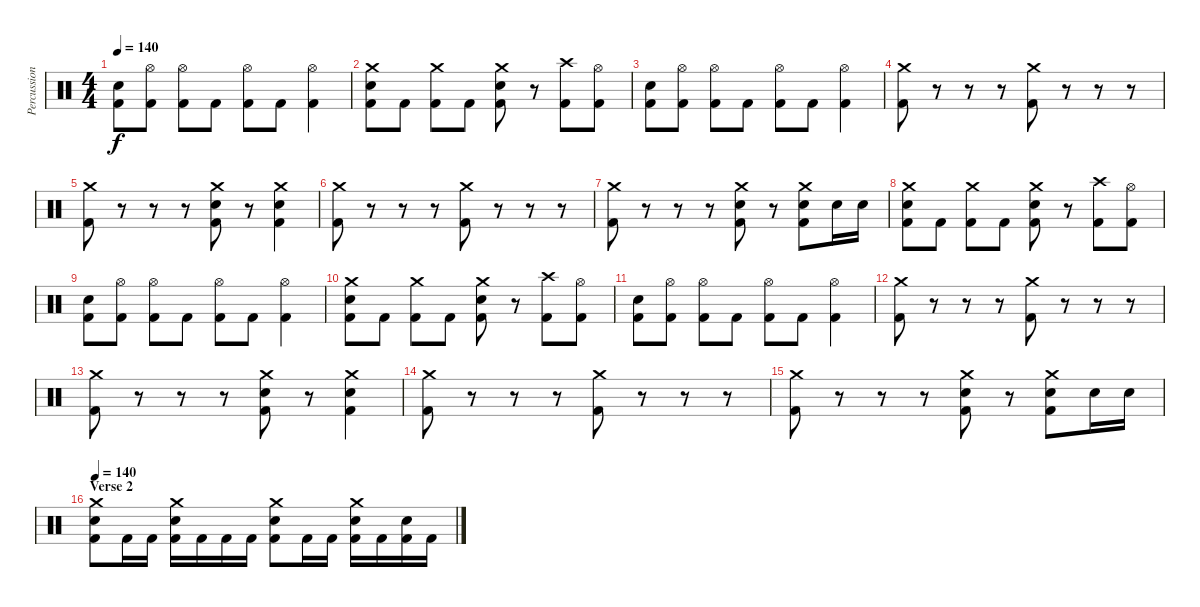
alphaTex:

\track ("Percussion" "Percussion") {instrument percussion}
\staff {score}
\articulation defaults
\ts (4 4)
\tempo 140
\clef neutral
\ks c
("Snare (hit) 2" "Kick (hit) 2").8{dy f} ("Hi-Hat (open)" "Kick (hit) 2").8 ("Hi-Hat (open)" "Kick (hit) 2").8 "Kick (hit) 2".8 ("Hi-Hat (open)" "Kick (hit) 2").8 "Kick (hit) 2".8 ("Hi-Hat (open)" "Kick (hit) 2").4 |
("Crash medium (hit)" "Snare (hit) 2" "Kick (hit) 2").8 "Kick (hit) 2".8 ("Crash medium (hit)" "Kick (hit) 2").8 "Kick (hit) 2".8 ("Crash medium (hit)" "Snare (hit) 2" "Kick (hit) 2").8 r.8 ("Crash high (hit)" "Kick (hit) 2").8 ("Hi-Hat (open)" "Kick (hit) 2").8 |
("Snare (hit) 2" "Kick (hit) 2").8 ("Hi-Hat (open)" "Kick (hit) 2").8 ("Hi-Hat (open)" "Kick (hit) 2").8 "Kick (hit) 2".8 ("Hi-Hat (open)" "Kick (hit) 2").8 "Kick (hit) 2".8 ("Hi-Hat (open)" "Kick (hit) 2").4 |
("Crash medium (hit)" "Kick (hit) 2").8 r.8 r.8 r.8 ("Crash medium (hit)" "Kick (hit) 2").8 r.8 r.8 r.8 |
("Crash medium (hit)" "Kick (hit) 2").8 r.8 r.8 r.8 ("Crash medium (hit)" "Snare (hit) 2" "Kick (hit) 2").8 r.8 ("Crash medium (hit)" "Snare (hit) 2" "Kick (hit) 2").4 |
("Crash medium (hit)" "Kick (hit) 2").8 r.8 r.8 r.8 ("Crash medium (hit)" "Kick (hit) 2").8 r.8 r.8 r.8 |
("Crash medium (hit)" "Kick (hit) 2").8 r.8 r.8 r.8 ("Crash medium (hit)" "Snare (hit) 2" "Kick (hit) 2").8 r.8 ("Crash medium (hit)" "Snare (hit) 2" "Kick (hit) 2").8 "Snare (hit) 2".16 "Snare (hit) 2".16 |
("Crash medium (hit)" "Snare (hit) 2" "Kick (hit) 2").8 "Kick (hit) 2".8 ("Crash medium (hit)" "Kick (hit) 2").8 "Kick (hit) 2".8 ("Crash medium (hit)" "Snare (hit) 2" "Kick (hit) 2").8 r.8 ("Crash high (hit)" "Kick (hit) 2").8 ("Hi-Hat (open)" "Kick (hit) 2").8 |
("Snare (hit) 2" "Kick (hit) 2").8 ("Hi-Hat (open)" "Kick (hit) 2").8 ("Hi-Hat (open)" "Kick (hit) 2").8 "Kick (hit) 2".8 ("Hi-Hat (open)" "Kick (hit) 2").8 "Kick (hit) 2".8 ("Hi-Hat (open)" "Kick (hit) 2").4 |
("Crash medium (hit)" "Snare (hit) 2" "Kick (hit) 2").8 "Kick (hit) 2".8 ("Crash medium (hit)" "Kick (hit) 2").8 "Kick (hit) 2".8 ("Crash medium (hit)" "Snare (hit) 2" "Kick (hit) 2").8 r.8 ("Crash high (hit)" "Kick (hit) 2").8 ("Hi-Hat (open)" "Kick (hit) 2").8 |
("Snare (hit) 2" "Kick (hit) 2").8 ("Hi-Hat (open)" "Kick (hit) 2").8 ("Hi-Hat (open)" "Kick (hit) 2").8 "Kick (hit) 2".8 ("Hi-Hat (open)" "Kick (hit) 2").8 "Kick (hit) 2".8 ("Hi-Hat (open)" "Kick (hit) 2").4 |
("Crash medium (hit)" "Kick (hit) 2").8 r.8 r.8 r.8 ("Crash medium (hit)" "Kick (hit) 2").8 r.8 r.8 r.8 |
("Crash medium (hit)" "Kick (hit) 2").8 r.8 r.8 r.8 ("Crash medium (hit)" "Snare (hit) 2" "Kick (hit) 2").8 r.8 ("Crash medium (hit)" "Snare (hit) 2" "Kick (hit) 2").4 |
("Crash medium (hit)" "Kick (hit) 2").8 r.8 r.8 r.8 ("Crash medium (hit)" "Kick (hit) 2").8 r.8 r.8 r.8 |
("Crash medium (hit)" "Kick (hit) 2").8 r.8 r.8 r.8 ("Crash medium (hit)" "Snare (hit) 2" "Kick (hit) 2").8 r.8 ("Crash medium (hit)" "Snare (hit) 2" "Kick (hit) 2").8 "Snare (hit) 2".16 "Snare (hit) 2".16 |
\section ("" "Verse 2")
\tempo 140
("Crash medium (hit)" "Snare (hit) 2" "Kick (hit) 2").8 "Kick (hit) 2".16 "Kick (hit) 2".16 ("Crash medium (hit)" "Snare (hit) 2" "Kick (hit) 2").16 "Kick (hit) 2".16 "Kick (hit) 2".16 "Kick (hit) 2".16 ("Crash medium (hit)" "Snare (hit) 2" "Kick (hit) 2").8 "Kick (hit) 2".16 "Kick (hit) 2".16 ("Crash medium (hit)" "Snare (hit) 2" "Kick (hit) 2").16 "Kick (hit) 2".16 ("Snare (hit) 2" "Kick (hit) 2").16 "Kick (hit) 2".16
